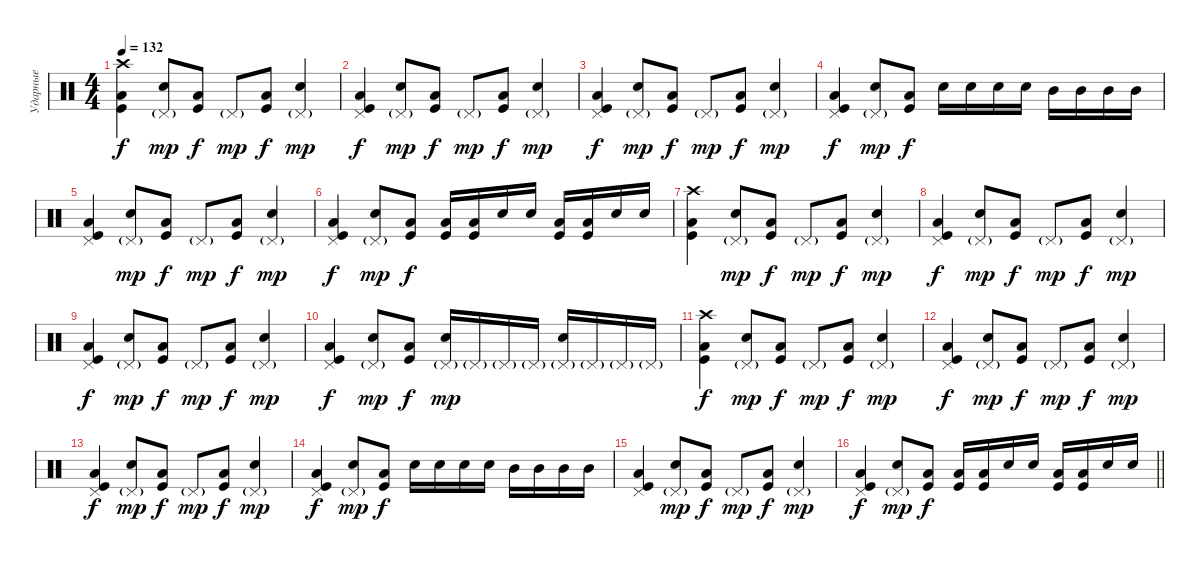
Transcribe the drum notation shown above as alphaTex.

\track ("Ударные" "Ударные") {instrument percussion}
\staff {score}
\articulation defaults
\ts (4 4)
\tempo 132
\clef neutral
\ks c
("Crash high (hit)" "Low Tom (hit)" "Kick (hit)").4{dy f} ("Pedal Hi-Hat (hit)"{g} "Electric Snare (hit)").8{dy mp} ("Low Tom (hit)" "Kick (hit)").8{dy f} "Pedal Hi-Hat (hit)"{g}.8{dy mp} ("Low Tom (hit)" "Kick (hit)").8{dy f} ("Pedal Hi-Hat (hit)"{g} "Electric Snare (hit)").4{dy mp} |
("Pedal Hi-Hat (hit)" "Low Tom (hit)" "Kick (hit)").4{dy f} ("Pedal Hi-Hat (hit)"{g} "Electric Snare (hit)").8{dy mp} ("Low Tom (hit)" "Kick (hit)").8{dy f} "Pedal Hi-Hat (hit)"{g}.8{dy mp} ("Low Tom (hit)" "Kick (hit)").8{dy f} ("Pedal Hi-Hat (hit)"{g} "Electric Snare (hit)").4{dy mp} |
("Pedal Hi-Hat (hit)" "Low Tom (hit)" "Kick (hit)").4{dy f} ("Pedal Hi-Hat (hit)"{g} "Electric Snare (hit)").8{dy mp} ("Low Tom (hit)" "Kick (hit)").8{dy f} "Pedal Hi-Hat (hit)"{g}.8{dy mp} ("Low Tom (hit)" "Kick (hit)").8{dy f} ("Pedal Hi-Hat (hit)"{g} "Electric Snare (hit)").4{dy mp} |
("Pedal Hi-Hat (hit)" "Low Tom (hit)" "Kick (hit)").4{dy f} ("Pedal Hi-Hat (hit)"{g} "Electric Snare (hit)").8{dy mp} ("Low Tom (hit)" "Kick (hit)").8{dy f} "Electric Snare (hit)".16 "Electric Snare (hit)".16 "Electric Snare (hit)".16 "Electric Snare (hit)".16 "Mid Tom (hit)".16 "Mid Tom (hit)".16 "Mid Tom (hit)".16 "Mid Tom (hit)".16 |
("Pedal Hi-Hat (hit)" "Low Tom (hit)" "Kick (hit)").4 ("Pedal Hi-Hat (hit)"{g} "Electric Snare (hit)").8{dy mp} ("Low Tom (hit)" "Kick (hit)").8{dy f} "Pedal Hi-Hat (hit)"{g}.8{dy mp} ("Low Tom (hit)" "Kick (hit)").8{dy f} ("Pedal Hi-Hat (hit)"{g} "Electric Snare (hit)").4{dy mp} |
("Pedal Hi-Hat (hit)" "Low Tom (hit)" "Kick (hit)").4{dy f} ("Pedal Hi-Hat (hit)"{g} "Electric Snare (hit)").8{dy mp} ("Low Tom (hit)" "Kick (hit)").8{dy f} ("Low Tom (hit)" "Kick (hit)").16 ("Low Tom (hit)" "Kick (hit)").16 "Electric Snare (hit)".16 "Electric Snare (hit)".16 ("Low Tom (hit)" "Kick (hit)").16 ("Low Tom (hit)" "Kick (hit)").16 "Electric Snare (hit)".16 "Electric Snare (hit)".16 |
("Crash high (hit)" "Low Tom (hit)" "Kick (hit)").4 ("Pedal Hi-Hat (hit)"{g} "Electric Snare (hit)").8{dy mp} ("Low Tom (hit)" "Kick (hit)").8{dy f} "Pedal Hi-Hat (hit)"{g}.8{dy mp} ("Low Tom (hit)" "Kick (hit)").8{dy f} ("Pedal Hi-Hat (hit)"{g} "Electric Snare (hit)").4{dy mp} |
("Pedal Hi-Hat (hit)" "Low Tom (hit)" "Kick (hit)").4{dy f} ("Pedal Hi-Hat (hit)"{g} "Electric Snare (hit)").8{dy mp} ("Low Tom (hit)" "Kick (hit)").8{dy f} "Pedal Hi-Hat (hit)"{g}.8{dy mp} ("Low Tom (hit)" "Kick (hit)").8{dy f} ("Pedal Hi-Hat (hit)"{g} "Electric Snare (hit)").4{dy mp} |
("Pedal Hi-Hat (hit)" "Low Tom (hit)" "Kick (hit)").4{dy f} ("Pedal Hi-Hat (hit)"{g} "Electric Snare (hit)").8{dy mp} ("Low Tom (hit)" "Kick (hit)").8{dy f} "Pedal Hi-Hat (hit)"{g}.8{dy mp} ("Low Tom (hit)" "Kick (hit)").8{dy f} ("Pedal Hi-Hat (hit)"{g} "Electric Snare (hit)").4{dy mp} |
("Pedal Hi-Hat (hit)" "Low Tom (hit)" "Kick (hit)").4{dy f} ("Pedal Hi-Hat (hit)"{g} "Electric Snare (hit)").8{dy mp} ("Low Tom (hit)" "Kick (hit)").8{dy f} ("Pedal Hi-Hat (hit)"{g} "Electric Snare (hit)").16{dy mp} "Pedal Hi-Hat (hit)"{g}.16 "Pedal Hi-Hat (hit)"{g}.16 "Pedal Hi-Hat (hit)"{g}.16 ("Pedal Hi-Hat (hit)"{g} "Electric Snare (hit)").16 "Pedal Hi-Hat (hit)"{g}.16 "Pedal Hi-Hat (hit)"{g}.16 "Pedal Hi-Hat (hit)"{g}.16 |
("Crash high (hit)" "Low Tom (hit)" "Kick (hit)").4{dy f} ("Pedal Hi-Hat (hit)"{g} "Electric Snare (hit)").8{dy mp} ("Low Tom (hit)" "Kick (hit)").8{dy f} "Pedal Hi-Hat (hit)"{g}.8{dy mp} ("Low Tom (hit)" "Kick (hit)").8{dy f} ("Pedal Hi-Hat (hit)"{g} "Electric Snare (hit)").4{dy mp} |
("Pedal Hi-Hat (hit)" "Low Tom (hit)" "Kick (hit)").4{dy f} ("Pedal Hi-Hat (hit)"{g} "Electric Snare (hit)").8{dy mp} ("Low Tom (hit)" "Kick (hit)").8{dy f} "Pedal Hi-Hat (hit)"{g}.8{dy mp} ("Low Tom (hit)" "Kick (hit)").8{dy f} ("Pedal Hi-Hat (hit)"{g} "Electric Snare (hit)").4{dy mp} |
("Pedal Hi-Hat (hit)" "Low Tom (hit)" "Kick (hit)").4{dy f} ("Pedal Hi-Hat (hit)"{g} "Electric Snare (hit)").8{dy mp} ("Low Tom (hit)" "Kick (hit)").8{dy f} "Pedal Hi-Hat (hit)"{g}.8{dy mp} ("Low Tom (hit)" "Kick (hit)").8{dy f} ("Pedal Hi-Hat (hit)"{g} "Electric Snare (hit)").4{dy mp} |
("Pedal Hi-Hat (hit)" "Low Tom (hit)" "Kick (hit)").4{dy f} ("Pedal Hi-Hat (hit)"{g} "Electric Snare (hit)").8{dy mp} ("Low Tom (hit)" "Kick (hit)").8{dy f} "Electric Snare (hit)".16 "Electric Snare (hit)".16 "Electric Snare (hit)".16 "Electric Snare (hit)".16 "Mid Tom (hit)".16 "Mid Tom (hit)".16 "Mid Tom (hit)".16 "Mid Tom (hit)".16 |
("Pedal Hi-Hat (hit)" "Low Tom (hit)" "Kick (hit)").4 ("Pedal Hi-Hat (hit)"{g} "Electric Snare (hit)").8{dy mp} ("Low Tom (hit)" "Kick (hit)").8{dy f} "Pedal Hi-Hat (hit)"{g}.8{dy mp} ("Low Tom (hit)" "Kick (hit)").8{dy f} ("Pedal Hi-Hat (hit)"{g} "Electric Snare (hit)").4{dy mp} |
\barLineRight lightlight
("Pedal Hi-Hat (hit)" "Low Tom (hit)" "Kick (hit)").4{dy f} ("Pedal Hi-Hat (hit)"{g} "Electric Snare (hit)").8{dy mp} ("Low Tom (hit)" "Kick (hit)").8{dy f} ("Low Tom (hit)" "Kick (hit)").16 ("Low Tom (hit)" "Kick (hit)").16 "Electric Snare (hit)".16 "Electric Snare (hit)".16 ("Low Tom (hit)" "Kick (hit)").16 ("Low Tom (hit)" "Kick (hit)").16 "Electric Snare (hit)".16 "Electric Snare (hit)".16
